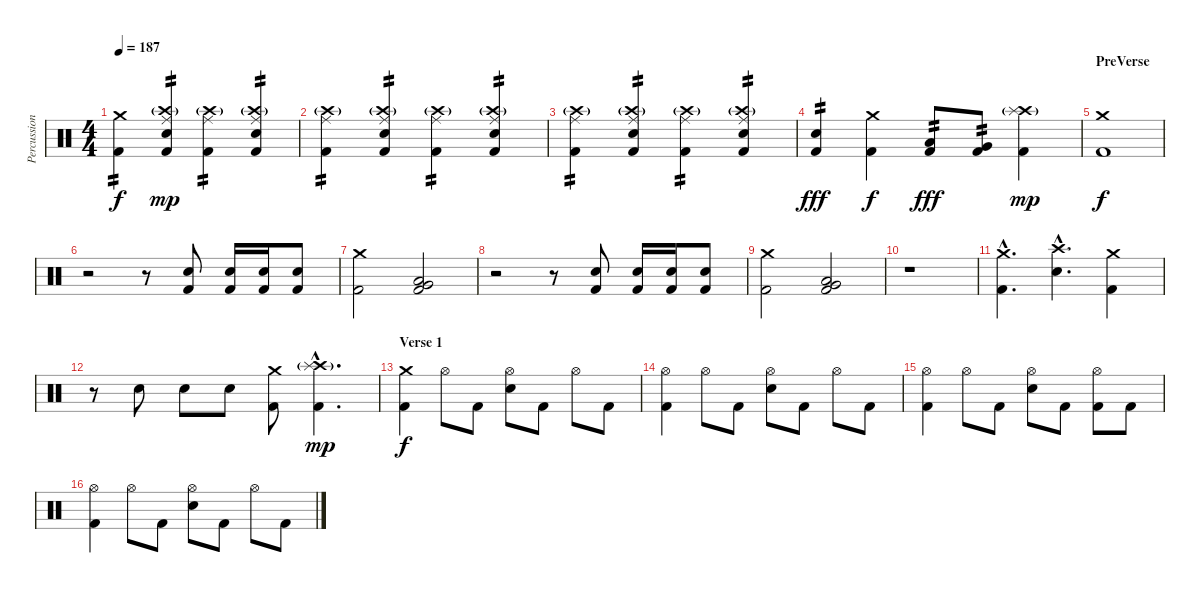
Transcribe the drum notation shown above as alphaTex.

\track ("Percussion" "Percussion") {instrument percussion}
\staff {score}
\articulation defaults
\ts (4 4)
\tempo 187
\clef neutral
\ks c
("Crash medium (hit)" "Kick (hit) 2").4{tp 2 dy f} ("Crash high (hit)"{g} "Ride (middle)" "Electric Snare (hit)" "Kick (hit) 2").4{tp 2 dy mp} ("Crash high (hit)"{g} "Ride (middle)" "Kick (hit) 2").4{tp 2} ("Crash high (hit)"{g} "Ride (middle)" "Electric Snare (hit)" "Kick (hit) 2").4{tp 2} |
("Crash high (hit)"{g} "Ride (middle)" "Kick (hit) 2").4{tp 2} ("Crash high (hit)"{g} "Ride (middle)" "Electric Snare (hit)" "Kick (hit) 2").4{tp 2} ("Crash high (hit)"{g} "Ride (middle)" "Kick (hit) 2").4{tp 2} ("Crash high (hit)"{g} "Ride (middle)" "Electric Snare (hit)" "Kick (hit) 2").4{tp 2} |
("Crash high (hit)"{g} "Ride (middle)" "Kick (hit) 2").4{tp 2} ("Crash high (hit)"{g} "Ride (middle)" "Electric Snare (hit)" "Kick (hit) 2").4{tp 2} ("Crash high (hit)"{g} "Ride (middle)" "Kick (hit) 2").4{tp 2} ("Crash high (hit)"{g} "Ride (middle)" "Electric Snare (hit)" "Kick (hit) 2").4{tp 2} |
("Electric Snare (hit)" "Kick (hit) 2").4{tp 2 dy fff} ("Crash medium (hit)" "Kick (hit) 2").4{dy f} ("Low Tom (hit)" "Kick (hit) 2").8{tp 2 dy fff} ("Very Low Tom (hit)" "Kick (hit) 2").8{tp 2} ("Crash high (hit)"{g} "Splash (hit)" "Kick (hit) 2").4{dy mp} |
\section ("" "PreVerse")
("Crash medium (hit)" "Kick (hit) 2").1{dy f} |
r.2 r.8 ("Electric Snare (hit)" "Kick (hit) 2").8 ("Electric Snare (hit)" "Kick (hit) 2").16 ("Electric Snare (hit)" "Kick (hit) 2").16 ("Electric Snare (hit)" "Kick (hit) 2").8 |
("Crash medium (hit)" "Kick (hit) 2").2 ("Very Low Tom (hit)" "Low Tom (hit)" "Kick (hit) 2").2 |
r.2 r.8 ("Electric Snare (hit)" "Kick (hit) 2").8 ("Electric Snare (hit)" "Kick (hit) 2").16 ("Electric Snare (hit)" "Kick (hit) 2").16 ("Electric Snare (hit)" "Kick (hit) 2").8 |
("Crash medium (hit)" "Kick (hit) 2").2 ("Very Low Tom (hit)" "Low Tom (hit)" "Kick (hit) 2").2 |
r.1 |
("Crash medium (hit)"{hac} "Kick (hit) 2"{hac}).4{d} ("Crash high (hit)"{hac} "Electric Snare (hit)"{hac}).4{d} ("Crash medium (hit)" "Kick (hit) 2").4 |
r.8 "Electric Snare (hit)".8 "Electric Snare (hit)".8 "Electric Snare (hit)".8 ("Crash medium (hit)" "Kick (hit) 2").8 ("Crash high (hit)"{g hac} "Splash (hit)"{hac} "Kick (hit) 2"{hac}).4{d dy mp} |
\section ("" "Verse 1")
("Crash medium (hit)" "Kick (hit) 2").4{dy f} "Hi-Hat (open)".8 "Kick (hit) 2".8 ("Hi-Hat (open)" "Electric Snare (hit)").8 "Kick (hit) 2".8 "Hi-Hat (open)".8 "Kick (hit) 2".8 |
("Hi-Hat (open)" "Kick (hit) 2").4 "Hi-Hat (open)".8 "Kick (hit) 2".8 ("Hi-Hat (open)" "Electric Snare (hit)").8 "Kick (hit) 2".8 "Hi-Hat (open)".8 "Kick (hit) 2".8 |
("Hi-Hat (open)" "Kick (hit) 2").4 "Hi-Hat (open)".8 "Kick (hit) 2".8 ("Hi-Hat (open)" "Electric Snare (hit)").8 "Kick (hit) 2".8 ("Hi-Hat (open)" "Kick (hit) 2").8 "Kick (hit) 2".8 |
("Hi-Hat (open)" "Kick (hit) 2").4 "Hi-Hat (open)".8 "Kick (hit) 2".8 ("Hi-Hat (open)" "Electric Snare (hit)").8 "Kick (hit) 2".8 "Hi-Hat (open)".8 "Kick (hit) 2".8
